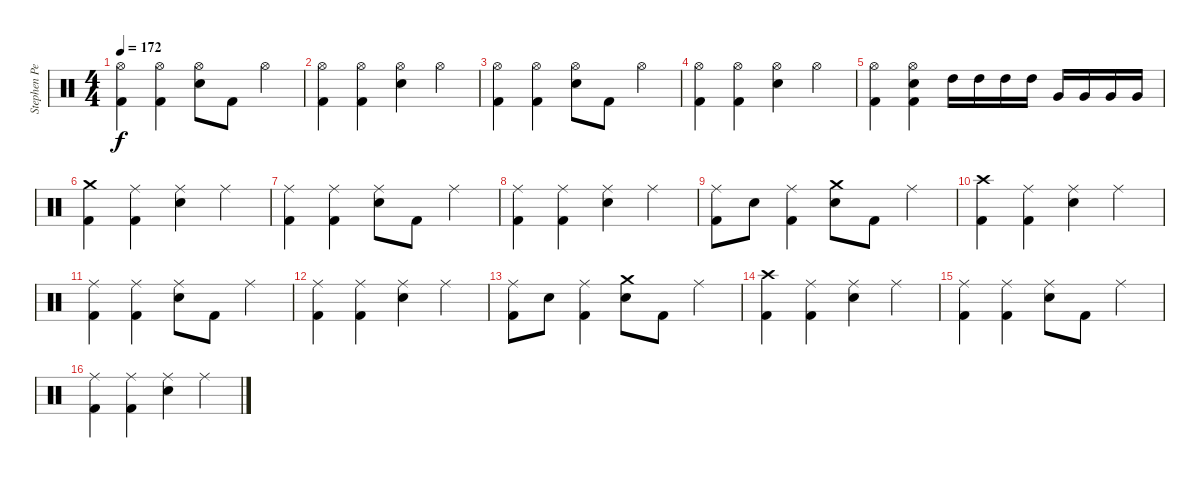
\track ("Stephen Perkins" "Stephen Pe") {instrument percussion}
\staff {score}
\articulation defaults
\ts (4 4)
\tempo 172
\clef neutral
\ks c
("Hi-Hat (open)" "Kick (hit) 2").4{dy f} ("Hi-Hat (open)" "Kick (hit) 2").4 ("Hi-Hat (open)" "Snare (hit) 2").8 "Kick (hit) 2".8 "Hi-Hat (open)".4 |
("Hi-Hat (open)" "Kick (hit) 2").4 ("Hi-Hat (open)" "Kick (hit) 2").4 ("Hi-Hat (open)" "Snare (hit) 2").4 "Hi-Hat (open)".4 |
("Hi-Hat (open)" "Kick (hit) 2").4 ("Hi-Hat (open)" "Kick (hit) 2").4 ("Hi-Hat (open)" "Snare (hit) 2").8 "Kick (hit) 2".8 "Hi-Hat (open)".4 |
("Hi-Hat (open)" "Kick (hit) 2").4 ("Hi-Hat (open)" "Kick (hit) 2").4 ("Hi-Hat (open)" "Snare (hit) 2").4 "Hi-Hat (open)".4 |
("Hi-Hat (open)" "Kick (hit) 2").4 ("Hi-Hat (open)" "Snare (hit) 2" "Kick (hit) 2").4 "High Tom (hit)".16 "High Tom (hit)".16 "High Tom (hit)".16 "High Tom (hit)".16 "Very Low Tom (hit)".16 "Very Low Tom (hit)".16 "Very Low Tom (hit)".16 "Very Low Tom (hit)".16 |
("Crash medium (hit)" "Kick (hit) 2").4 ("Ride (middle)" "Kick (hit) 2").4 ("Ride (middle)" "Snare (hit) 2").4 "Ride (middle)".4 |
("Ride (middle)" "Kick (hit) 2").4 ("Ride (middle)" "Kick (hit) 2").4 ("Ride (middle)" "Snare (hit) 2").8 "Kick (hit) 2".8 "Ride (middle)".4 |
("Ride (middle)" "Kick (hit) 2").4 ("Ride (middle)" "Kick (hit) 2").4 ("Ride (middle)" "Snare (hit) 2").4 "Ride (middle)".4 |
("Ride (middle)" "Kick (hit) 2").8 "Snare (hit) 2".8 ("Ride (middle)" "Kick (hit) 2").4 ("Crash medium (hit)" "Snare (hit) 2").8 "Kick (hit) 2".8 "Ride (middle)".4 |
("Crash high (hit)" "Kick (hit) 2").4 ("Ride (middle)" "Kick (hit) 2").4 ("Ride (middle)" "Snare (hit) 2").4 "Ride (middle)".4 |
("Ride (middle)" "Kick (hit) 2").4 ("Ride (middle)" "Kick (hit) 2").4 ("Ride (middle)" "Snare (hit) 2").8 "Kick (hit) 2".8 "Ride (middle)".4 |
("Ride (middle)" "Kick (hit) 2").4 ("Ride (middle)" "Kick (hit) 2").4 ("Ride (middle)" "Snare (hit) 2").4 "Ride (middle)".4 |
("Ride (middle)" "Kick (hit) 2").8 "Snare (hit) 2".8 ("Ride (middle)" "Kick (hit) 2").4 ("Crash medium (hit)" "Snare (hit) 2").8 "Kick (hit) 2".8 "Ride (middle)".4 |
("Crash high (hit)" "Kick (hit) 2").4 ("Ride (middle)" "Kick (hit) 2").4 ("Ride (middle)" "Snare (hit) 2").4 "Ride (middle)".4 |
("Ride (middle)" "Kick (hit) 2").4 ("Ride (middle)" "Kick (hit) 2").4 ("Ride (middle)" "Snare (hit) 2").8 "Kick (hit) 2".8 "Ride (middle)".4 |
("Ride (middle)" "Kick (hit) 2").4 ("Ride (middle)" "Kick (hit) 2").4 ("Ride (middle)" "Snare (hit) 2").4 "Ride (middle)".4
